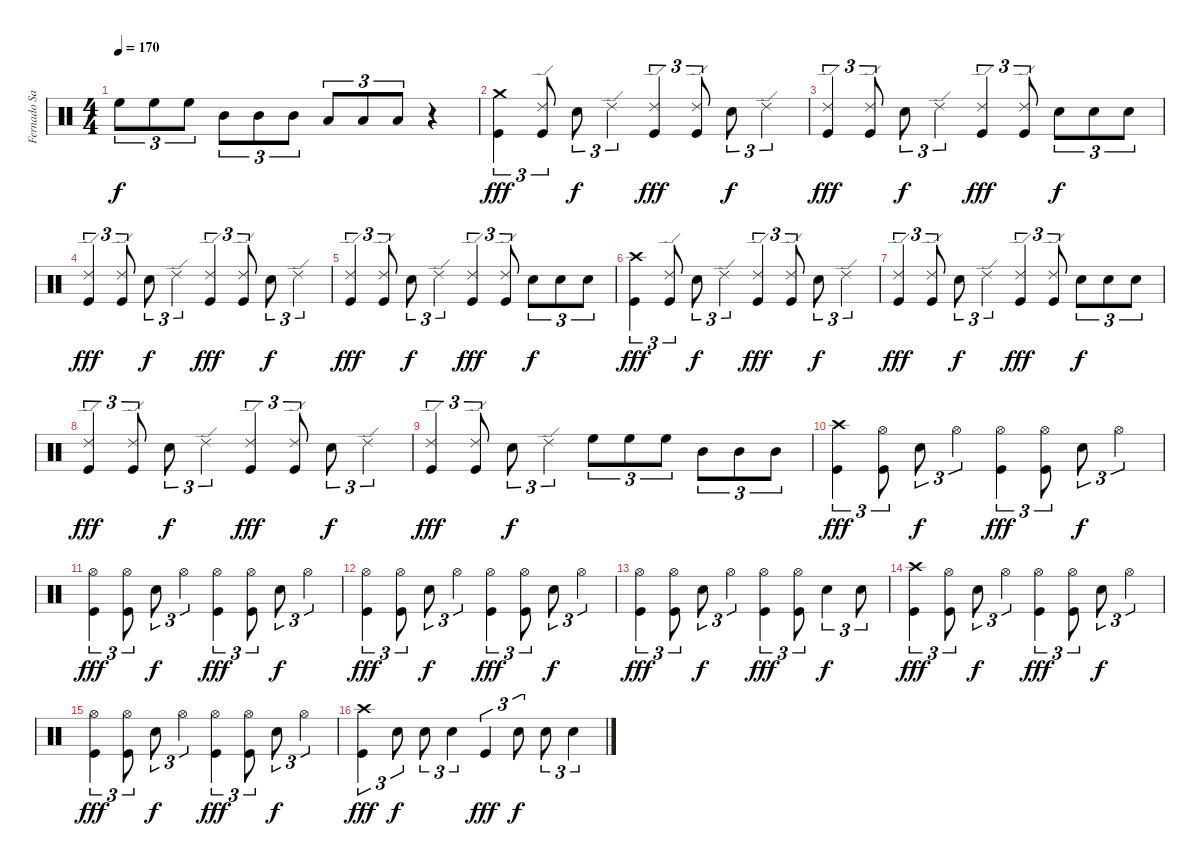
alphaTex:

\track ("Fernado Sanchez" "Fernado Sa") {instrument percussion}
\staff {score}
\articulation defaults
\ts (4 4)
\tempo 170
\clef neutral
\ks c "High Floor Tom (hit)".8{tu (3 2) dy f} "High Floor Tom (hit)".8{tu (3 2)} "High Floor Tom (hit)".8{tu (3 2)} "Mid Tom (hit)".8{tu (3 2)} "Mid Tom (hit)".8{tu (3 2)} "Mid Tom (hit)".8{tu (3 2)} "Low Tom (hit)".8{tu (3 2)} "Low Tom (hit)".8{tu (3 2)} "Low Tom (hit)".8{tu (3 2)}
r.4 |
("Crash medium (hit)" "Kick (hit)").4{tu (3 2) dy fff} ("Ride (edge) 2" "Kick (hit)").8{tu (3 2)} "Electric Snare (hit)".8{tu (3 2) dy f} "Ride (edge) 2".4{tu (3 2)} ("Ride (edge) 2" "Kick (hit)").4{tu (3 2) dy fff} ("Ride (edge) 2" "Kick (hit)").8{tu (3 2)} "Electric Snare (hit)".8{tu (3 2) dy f} "Ride (edge) 2".4{tu (3 2)} |
("Ride (edge) 2" "Kick (hit)").4{tu (3 2) dy fff} ("Ride (edge) 2" "Kick (hit)").8{tu (3 2)} "Electric Snare (hit)".8{tu (3 2) dy f} "Ride (edge) 2".4{tu (3 2)} ("Ride (edge) 2" "Kick (hit)").4{tu (3 2) dy fff} ("Ride (edge) 2" "Kick (hit)").8{tu (3 2)} "Electric Snare (hit)".8{tu (3 2) dy f} "Electric Snare (hit)".8{tu (3 2)} "Electric Snare (hit)".8{tu (3 2)} |
("Ride (edge) 2" "Kick (hit)").4{tu (3 2) dy fff} ("Ride (edge) 2" "Kick (hit)").8{tu (3 2)} "Electric Snare (hit)".8{tu (3 2) dy f} "Ride (edge) 2".4{tu (3 2)} ("Ride (edge) 2" "Kick (hit)").4{tu (3 2) dy fff} ("Ride (edge) 2" "Kick (hit)").8{tu (3 2)} "Electric Snare (hit)".8{tu (3 2) dy f} "Ride (edge) 2".4{tu (3 2)} |
("Ride (edge) 2" "Kick (hit)").4{tu (3 2) dy fff} ("Ride (edge) 2" "Kick (hit)").8{tu (3 2)} "Electric Snare (hit)".8{tu (3 2) dy f} "Ride (edge) 2".4{tu (3 2)} ("Ride (edge) 2" "Kick (hit)").4{tu (3 2) dy fff} ("Ride (edge) 2" "Kick (hit)").8{tu (3 2)} "Electric Snare (hit)".8{tu (3 2) dy f} "Electric Snare (hit)".8{tu (3 2)} "Electric Snare (hit)".8{tu (3 2)} |
("Crash high (hit)" "Kick (hit)").4{tu (3 2) dy fff} ("Ride (edge) 2" "Kick (hit)").8{tu (3 2)} "Electric Snare (hit)".8{tu (3 2) dy f} "Ride (edge) 2".4{tu (3 2)} ("Ride (edge) 2" "Kick (hit)").4{tu (3 2) dy fff} ("Ride (edge) 2" "Kick (hit)").8{tu (3 2)} "Electric Snare (hit)".8{tu (3 2) dy f} "Ride (edge) 2".4{tu (3 2)} |
("Ride (edge) 2" "Kick (hit)").4{tu (3 2) dy fff} ("Ride (edge) 2" "Kick (hit)").8{tu (3 2)} "Electric Snare (hit)".8{tu (3 2) dy f} "Ride (edge) 2".4{tu (3 2)} ("Ride (edge) 2" "Kick (hit)").4{tu (3 2) dy fff} ("Ride (edge) 2" "Kick (hit)").8{tu (3 2)} "Electric Snare (hit)".8{tu (3 2) dy f} "Electric Snare (hit)".8{tu (3 2)} "Electric Snare (hit)".8{tu (3 2)} |
("Ride (edge) 2" "Kick (hit)").4{tu (3 2) dy fff} ("Ride (edge) 2" "Kick (hit)").8{tu (3 2)} "Electric Snare (hit)".8{tu (3 2) dy f} "Ride (edge) 2".4{tu (3 2)} ("Ride (edge) 2" "Kick (hit)").4{tu (3 2) dy fff} ("Ride (edge) 2" "Kick (hit)").8{tu (3 2)} "Electric Snare (hit)".8{tu (3 2) dy f} "Ride (edge) 2".4{tu (3 2)} |
("Ride (edge) 2" "Kick (hit)").4{tu (3 2) dy fff} ("Ride (edge) 2" "Kick (hit)").8{tu (3 2)} "Electric Snare (hit)".8{tu (3 2) dy f} "Ride (edge) 2".4{tu (3 2)} "High Floor Tom (hit)".8{tu (3 2)} "High Floor Tom (hit)".8{tu (3 2)} "High Floor Tom (hit)".8{tu (3 2)} "Mid Tom (hit)".8{tu (3 2)} "Mid Tom (hit)".8{tu (3 2)} "Mid Tom (hit)".8{tu (3 2)} |
("Crash high (hit)" "Kick (hit)").4{tu (3 2) dy fff} ("Hi-Hat (open)" "Kick (hit)").8{tu (3 2)} "Electric Snare (hit)".8{tu (3 2) dy f} "Hi-Hat (open)".4{tu (3 2)} ("Hi-Hat (open)" "Kick (hit)").4{tu (3 2) dy fff} ("Hi-Hat (open)" "Kick (hit)").8{tu (3 2)} "Electric Snare (hit)".8{tu (3 2) dy f} "Hi-Hat (open)".4{tu (3 2)} |
("Hi-Hat (open)" "Kick (hit)").4{tu (3 2) dy fff} ("Hi-Hat (open)" "Kick (hit)").8{tu (3 2)} "Electric Snare (hit)".8{tu (3 2) dy f} "Hi-Hat (open)".4{tu (3 2)} ("Hi-Hat (open)" "Kick (hit)").4{tu (3 2) dy fff} ("Hi-Hat (open)" "Kick (hit)").8{tu (3 2)} "Electric Snare (hit)".8{tu (3 2) dy f} "Hi-Hat (open)".4{tu (3 2)} |
("Hi-Hat (open)" "Kick (hit)").4{tu (3 2) dy fff} ("Hi-Hat (open)" "Kick (hit)").8{tu (3 2)} "Electric Snare (hit)".8{tu (3 2) dy f} "Hi-Hat (open)".4{tu (3 2)} ("Hi-Hat (open)" "Kick (hit)").4{tu (3 2) dy fff} ("Hi-Hat (open)" "Kick (hit)").8{tu (3 2)} "Electric Snare (hit)".8{tu (3 2) dy f} "Hi-Hat (open)".4{tu (3 2)} |
("Hi-Hat (open)" "Kick (hit)").4{tu (3 2) dy fff} ("Hi-Hat (open)" "Kick (hit)").8{tu (3 2)} "Electric Snare (hit)".8{tu (3 2) dy f} "Hi-Hat (open)".4{tu (3 2)} ("Hi-Hat (open)" "Kick (hit)").4{tu (3 2) dy fff} ("Hi-Hat (open)" "Kick (hit)").8{tu (3 2)} "Electric Snare (hit)".4{tu (3 2) dy f} "Electric Snare (hit)".8{tu (3 2)} |
("Crash high (hit)" "Kick (hit)").4{tu (3 2) dy fff} ("Hi-Hat (open)" "Kick (hit)").8{tu (3 2)} "Electric Snare (hit)".8{tu (3 2) dy f} "Hi-Hat (open)".4{tu (3 2)} ("Hi-Hat (open)" "Kick (hit)").4{tu (3 2) dy fff} ("Hi-Hat (open)" "Kick (hit)").8{tu (3 2)} "Electric Snare (hit)".8{tu (3 2) dy f} "Hi-Hat (open)".4{tu (3 2)} |
("Hi-Hat (open)" "Kick (hit)").4{tu (3 2) dy fff} ("Hi-Hat (open)" "Kick (hit)").8{tu (3 2)} "Electric Snare (hit)".8{tu (3 2) dy f} "Hi-Hat (open)".4{tu (3 2)} ("Hi-Hat (open)" "Kick (hit)").4{tu (3 2) dy fff} ("Hi-Hat (open)" "Kick (hit)").8{tu (3 2)} "Electric Snare (hit)".8{tu (3 2) dy f} "Hi-Hat (open)".4{tu (3 2)} |
("Crash high (hit)" "Kick (hit)").4{tu (3 2) dy fff} "Electric Snare (hit)".8{tu (3 2) dy f} "Electric Snare (hit)".8{tu (3 2)} "Electric Snare (hit)".4{tu (3 2)} "Kick (hit)".4{tu (3 2) dy fff} "Electric Snare (hit)".8{tu (3 2) dy f} "Electric Snare (hit)".8{tu (3 2)} "Electric Snare (hit)".4{tu (3 2)}
